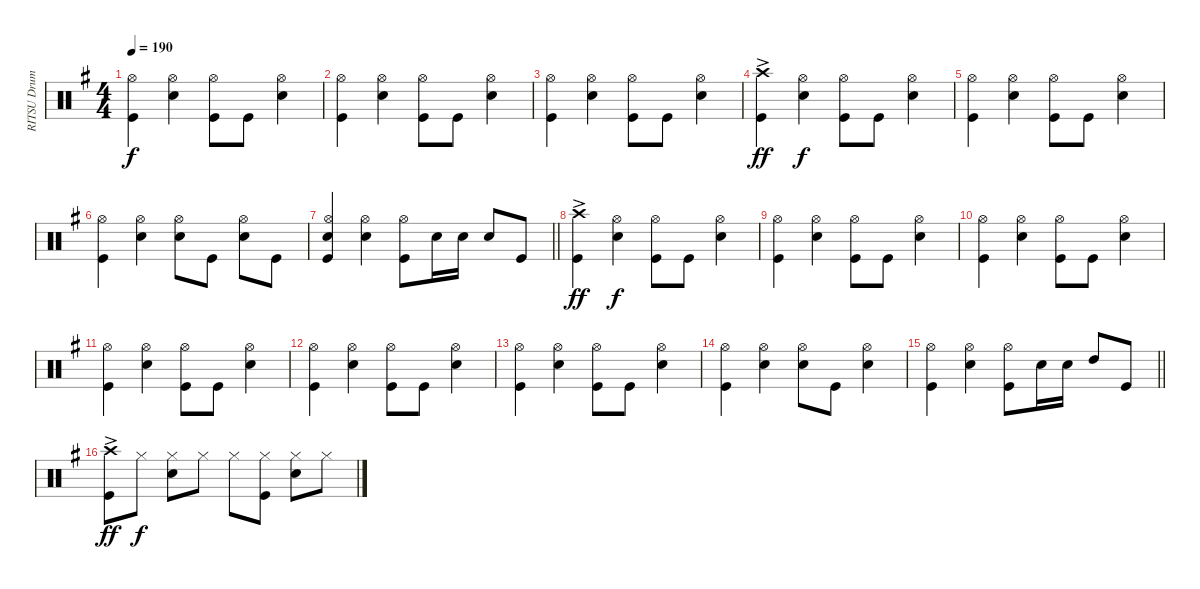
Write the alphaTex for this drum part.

\track ("RITSU Drums" "RITSU Drum") {instrument percussion}
\staff {score}
\articulation defaults
\ts (4 4)
\tempo 190
\clef neutral
\ks g
("Kick (hit)" "Hi-Hat (open)").4{dy f} ("Hi-Hat (open)" "Snare (hit) 2").4 ("Kick (hit)" "Hi-Hat (open)").8 "Kick (hit)".8 ("Snare (hit) 2" "Hi-Hat (open)").4 |
("Kick (hit)" "Hi-Hat (open)").4 ("Hi-Hat (open)" "Snare (hit) 2").4 ("Kick (hit)" "Hi-Hat (open)").8 "Kick (hit)".8 ("Snare (hit) 2" "Hi-Hat (open)").4 |
("Kick (hit)" "Hi-Hat (open)").4 ("Hi-Hat (open)" "Snare (hit) 2").4 ("Kick (hit)" "Hi-Hat (open)").8 "Kick (hit)".8 ("Snare (hit) 2" "Hi-Hat (open)").4 |
("Kick (hit)" "Crash high (hit)"{ac}).4{dy ff} ("Hi-Hat (open)" "Snare (hit) 2").4{dy f} ("Kick (hit)" "Hi-Hat (open)").8 "Kick (hit)".8 ("Snare (hit) 2" "Hi-Hat (open)").4 |
("Kick (hit)" "Hi-Hat (open)").4 ("Hi-Hat (open)" "Snare (hit) 2").4 ("Kick (hit)" "Hi-Hat (open)").8 "Kick (hit)".8 ("Snare (hit) 2" "Hi-Hat (open)").4 |
("Kick (hit)" "Hi-Hat (open)").4 ("Hi-Hat (open)" "Snare (hit) 2").4 ("Snare (hit) 2" "Hi-Hat (open)").8 "Kick (hit)".8 ("Hi-Hat (open)" "Snare (hit) 2").8 "Kick (hit)".8 |
\barLineRight lightlight
("Kick (hit)" "Snare (hit) 2" "Hi-Hat (open)").4 ("Hi-Hat (open)" "Snare (hit) 2").4 ("Kick (hit)" "Hi-Hat (open)").8 "Snare (hit) 2".16 "Snare (hit) 2".16 "Snare (hit) 2".8 "Kick (hit)".8 |
("Kick (hit)" "Crash high (hit)"{ac}).4{dy ff} ("Hi-Hat (open)" "Snare (hit) 2").4{dy f} ("Kick (hit)" "Hi-Hat (open)").8 "Kick (hit)".8 ("Snare (hit) 2" "Hi-Hat (open)").4 |
("Kick (hit)" "Hi-Hat (open)").4 ("Hi-Hat (open)" "Snare (hit) 2").4 ("Kick (hit)" "Hi-Hat (open)").8 "Kick (hit)".8 ("Snare (hit) 2" "Hi-Hat (open)").4 |
("Kick (hit)" "Hi-Hat (open)").4 ("Hi-Hat (open)" "Snare (hit) 2").4 ("Kick (hit)" "Hi-Hat (open)").8 "Kick (hit)".8 ("Snare (hit) 2" "Hi-Hat (open)").4 |
("Kick (hit)" "Hi-Hat (open)").4 ("Hi-Hat (open)" "Snare (hit) 2").4 ("Kick (hit)" "Hi-Hat (open)").8 "Kick (hit)".8 ("Snare (hit) 2" "Hi-Hat (open)").4 |
("Kick (hit)" "Hi-Hat (open)").4 ("Hi-Hat (open)" "Snare (hit) 2").4 ("Kick (hit)" "Hi-Hat (open)").8 "Kick (hit)".8 ("Snare (hit) 2" "Hi-Hat (open)").4 |
("Kick (hit)" "Hi-Hat (open)").4 ("Hi-Hat (open)" "Snare (hit) 2").4 ("Kick (hit)" "Hi-Hat (open)").8 "Kick (hit)".8 ("Snare (hit) 2" "Hi-Hat (open)").4 |
("Kick (hit)" "Hi-Hat (open)").4 ("Hi-Hat (open)" "Snare (hit) 2").4 ("Snare (hit) 2" "Hi-Hat (open)").8 "Kick (hit)".8 ("Snare (hit) 2" "Hi-Hat (open)").4 |
\barLineRight lightlight
("Hi-Hat (open)" "Kick (hit)").4 ("Hi-Hat (open)" "Snare (hit) 2").4 ("Kick (hit)" "Hi-Hat (open)").8 "Snare (hit) 2".16 "Snare (hit) 2".16 "High Tom (hit)".8 "Kick (hit)".8 |
("Crash high (hit)"{ac} "Kick (hit)").8{dy ff} "Hi-Hat (closed)".8{dy f} ("Snare (hit) 2" "Hi-Hat (closed)").8 "Hi-Hat (closed)".8 "Hi-Hat (closed)".8 ("Kick (hit)" "Hi-Hat (closed)").8 ("Snare (hit) 2" "Hi-Hat (closed)").8 "Hi-Hat (closed)".8
